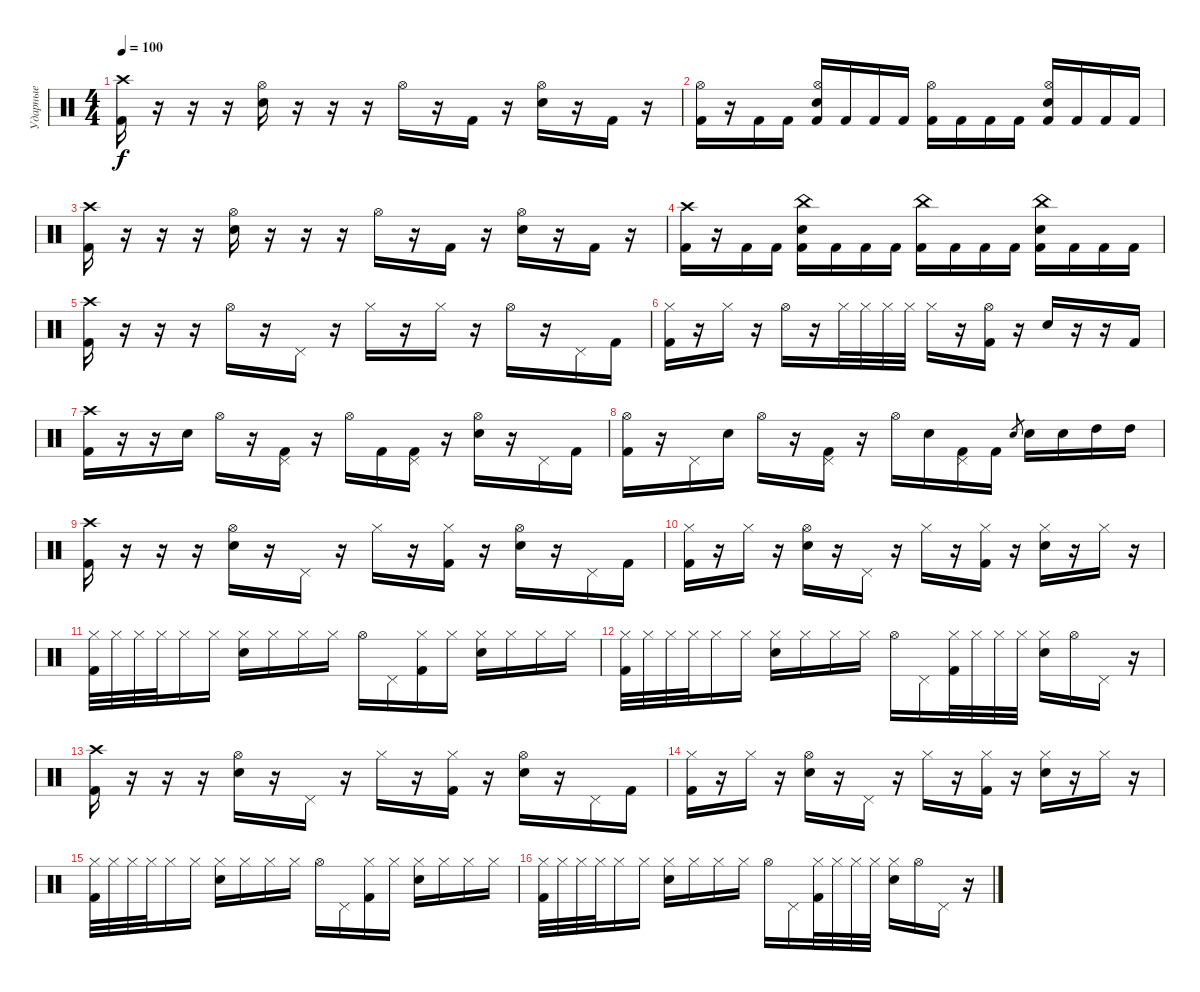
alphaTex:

\track ("Ударные" "Ударные") {instrument percussion}
\staff {score}
\articulation defaults
\ts (4 4)
\tempo 100
\clef neutral
\ks c
("Crash high (hit)" "Kick (hit) 2").16{dy f} r.16 r.16 r.16 ("Hi-Hat (open)" "Electric Snare (hit)").16 r.16 r.16 r.16 "Hi-Hat (open)".16 r.16 "Kick (hit) 2".16 r.16 ("Hi-Hat (open)" "Electric Snare (hit)").16 r.16 "Kick (hit) 2".16 r.16 |
("Hi-Hat (open)" "Kick (hit) 2").16 r.16 "Kick (hit) 2".16 "Kick (hit) 2".16 ("Hi-Hat (open)" "Electric Snare (hit)" "Kick (hit) 2").16 "Kick (hit) 2".16 "Kick (hit) 2".16 "Kick (hit) 2".16 ("Hi-Hat (open)" "Kick (hit) 2").16 "Kick (hit) 2".16 "Kick (hit) 2".16 "Kick (hit) 2".16 ("Hi-Hat (open)" "Electric Snare (hit)" "Kick (hit) 2").16 "Kick (hit) 2".16 "Kick (hit) 2".16 "Kick (hit) 2".16 |
("Crash high (hit)" "Kick (hit) 2").16 r.16 r.16 r.16 ("Hi-Hat (open)" "Electric Snare (hit)").16 r.16 r.16 r.16 "Hi-Hat (open)".16 r.16 "Kick (hit) 2".16 r.16 ("Hi-Hat (open)" "Electric Snare (hit)").16 r.16 "Kick (hit) 2".16 r.16 |
("Crash high (hit)" "Kick (hit) 2").16 r.16 "Kick (hit) 2".16 "Kick (hit) 2".16 ("China (hit)" "Electric Snare (hit)" "Kick (hit) 2").16 "Kick (hit) 2".16 "Kick (hit) 2".16 "Kick (hit) 2".16 ("China (hit)" "Kick (hit) 2").16 "Kick (hit) 2".16 "Kick (hit) 2".16 "Kick (hit) 2".16 ("China (hit)" "Electric Snare (hit)" "Kick (hit) 2").16 "Kick (hit) 2".16 "Kick (hit) 2".16 "Kick (hit) 2".16 |
("Crash high (hit)" "Kick (hit) 2").16 r.16 r.16 r.16 "Hi-Hat (open)".16 r.16 "Pedal Hi-Hat (hit)".16 r.16 "Hi-Hat (closed)".16 r.16 "Hi-Hat (closed)".16 r.16 "Hi-Hat (open)".16 r.16 "Pedal Hi-Hat (hit)".16 "Kick (hit) 2".16 |
("Hi-Hat (closed)" "Kick (hit) 2").16 r.16 "Hi-Hat (closed)".16 r.16 "Hi-Hat (open)".16 r.16 "Hi-Hat (closed)".32 "Hi-Hat (closed)".32 "Hi-Hat (closed)".32 "Hi-Hat (closed)".32 "Hi-Hat (closed)".16 r.16 ("Hi-Hat (open)" "Kick (hit) 2").16 r.16 "Electric Snare (hit)".16 r.16 r.16 "Kick (hit) 2".16 |
("Crash high (hit)" "Kick (hit) 2").16 r.16 r.16 "Electric Snare (hit)".16 "Hi-Hat (open)".16 r.16 ("Pedal Hi-Hat (hit)" "Kick (hit) 2").16 r.16 "Hi-Hat (open)".16 "Kick (hit) 2".16 ("Pedal Hi-Hat (hit)" "Kick (hit) 2").16 r.16 ("Hi-Hat (open)" "Electric Snare (hit)").16 r.16 "Pedal Hi-Hat (hit)".16 "Kick (hit) 2".16 |
("Hi-Hat (open)" "Kick (hit) 2").16 r.16 "Pedal Hi-Hat (hit)".16 "Electric Snare (hit)".16 "Hi-Hat (open)".16 r.16 ("Pedal Hi-Hat (hit)" "Kick (hit) 2").16 r.16 "Hi-Hat (open)".16 "Electric Snare (hit)".16 ("Pedal Hi-Hat (hit)" "Kick (hit) 2").16 "Kick (hit) 2".16 "Electric Snare (hit)".8{gr} "Electric Snare (hit)".16 "Electric Snare (hit)".16 "High Tom (hit)".16 "High Tom (hit)".16 |
("Crash high (hit)" "Kick (hit) 2").16 r.16 r.16 r.16 ("Hi-Hat (open)" "Electric Snare (hit)").16 r.16 "Pedal Hi-Hat (hit)".16 r.16 "Hi-Hat (closed)".16 r.16 ("Hi-Hat (closed)" "Kick (hit) 2").16 r.16 ("Hi-Hat (open)" "Electric Snare (hit)").16 r.16 "Pedal Hi-Hat (hit)".16 "Kick (hit) 2".16 |
("Hi-Hat (closed)" "Kick (hit) 2").16 r.16 "Hi-Hat (closed)".16 r.16 ("Hi-Hat (open)" "Electric Snare (hit)").16 r.16 "Pedal Hi-Hat (hit)".16 r.16 "Hi-Hat (closed)".16 r.16 ("Hi-Hat (closed)" "Kick (hit) 2").16 r.16 ("Hi-Hat (closed)" "Electric Snare (hit)").16 r.16 "Hi-Hat (closed)".16 r.16 |
("Hi-Hat (closed)" "Kick (hit) 2").32 "Hi-Hat (closed)".32 "Hi-Hat (closed)".32 "Hi-Hat (closed)".32 "Hi-Hat (closed)".16 "Hi-Hat (closed)".16 ("Hi-Hat (closed)" "Electric Snare (hit)").16 "Hi-Hat (closed)".16 "Hi-Hat (closed)".16 "Hi-Hat (closed)".16 "Hi-Hat (open)".16 "Pedal Hi-Hat (hit)".16 ("Hi-Hat (closed)" "Kick (hit) 2").16 "Hi-Hat (closed)".16 ("Hi-Hat (closed)" "Electric Snare (hit)").16 "Hi-Hat (closed)".16 "Hi-Hat (closed)".16 "Hi-Hat (closed)".16 |
("Hi-Hat (closed)" "Kick (hit) 2").32 "Hi-Hat (closed)".32 "Hi-Hat (closed)".32 "Hi-Hat (closed)".32 "Hi-Hat (closed)".16 "Hi-Hat (closed)".16 ("Hi-Hat (closed)" "Electric Snare (hit)").16 "Hi-Hat (closed)".16 "Hi-Hat (closed)".16 "Hi-Hat (closed)".16 "Hi-Hat (open)".16 "Pedal Hi-Hat (hit)".16 ("Hi-Hat (closed)" "Kick (hit) 2").32 "Hi-Hat (closed)".32 "Hi-Hat (closed)".32 "Hi-Hat (closed)".32 ("Hi-Hat (closed)" "Electric Snare (hit)").16 "Hi-Hat (open)".16 "Pedal Hi-Hat (hit)".16 r.16 |
("Crash high (hit)" "Kick (hit) 2").16 r.16 r.16 r.16 ("Hi-Hat (open)" "Electric Snare (hit)").16 r.16 "Pedal Hi-Hat (hit)".16 r.16 "Hi-Hat (closed)".16 r.16 ("Hi-Hat (closed)" "Kick (hit) 2").16 r.16 ("Hi-Hat (open)" "Electric Snare (hit)").16 r.16 "Pedal Hi-Hat (hit)".16 "Kick (hit) 2".16 |
("Hi-Hat (closed)" "Kick (hit) 2").16 r.16 "Hi-Hat (closed)".16 r.16 ("Hi-Hat (open)" "Electric Snare (hit)").16 r.16 "Pedal Hi-Hat (hit)".16 r.16 "Hi-Hat (closed)".16 r.16 ("Hi-Hat (closed)" "Kick (hit) 2").16 r.16 ("Hi-Hat (closed)" "Electric Snare (hit)").16 r.16 "Hi-Hat (closed)".16 r.16 |
("Hi-Hat (closed)" "Kick (hit) 2").32 "Hi-Hat (closed)".32 "Hi-Hat (closed)".32 "Hi-Hat (closed)".32 "Hi-Hat (closed)".16 "Hi-Hat (closed)".16 ("Hi-Hat (closed)" "Electric Snare (hit)").16 "Hi-Hat (closed)".16 "Hi-Hat (closed)".16 "Hi-Hat (closed)".16 "Hi-Hat (open)".16 "Pedal Hi-Hat (hit)".16 ("Hi-Hat (closed)" "Kick (hit) 2").16 "Hi-Hat (closed)".16 ("Hi-Hat (closed)" "Electric Snare (hit)").16 "Hi-Hat (closed)".16 "Hi-Hat (closed)".16 "Hi-Hat (closed)".16 |
("Hi-Hat (closed)" "Kick (hit) 2").32 "Hi-Hat (closed)".32 "Hi-Hat (closed)".32 "Hi-Hat (closed)".32 "Hi-Hat (closed)".16 "Hi-Hat (closed)".16 ("Hi-Hat (closed)" "Electric Snare (hit)").16 "Hi-Hat (closed)".16 "Hi-Hat (closed)".16 "Hi-Hat (closed)".16 "Hi-Hat (open)".16 "Pedal Hi-Hat (hit)".16 ("Hi-Hat (closed)" "Kick (hit) 2").32 "Hi-Hat (closed)".32 "Hi-Hat (closed)".32 "Hi-Hat (closed)".32 ("Hi-Hat (closed)" "Electric Snare (hit)").16 "Hi-Hat (open)".16 "Pedal Hi-Hat (hit)".16 r.16
